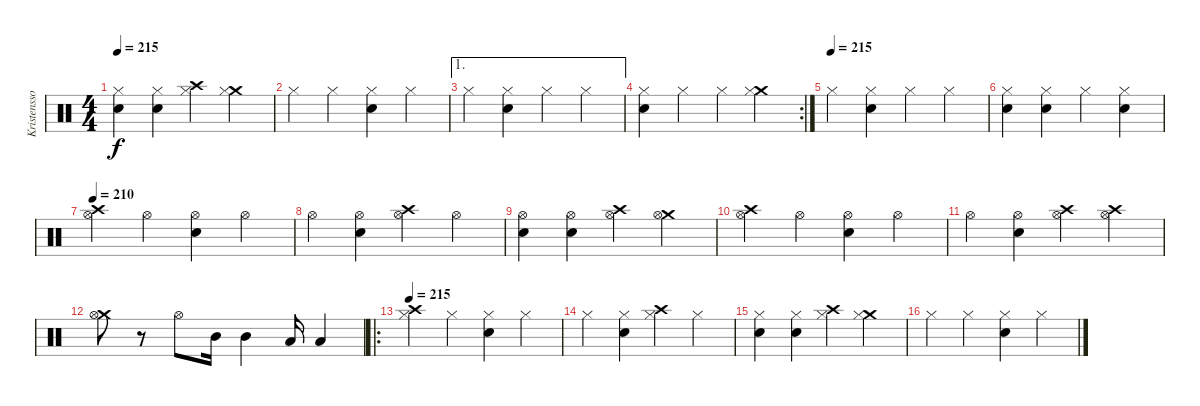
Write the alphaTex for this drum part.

\track ("Kristensson" "Kristensso") {instrument percussion}
\staff {score}
\articulation defaults
\ts (4 4)
\tempo 215
\clef neutral
\ks c
("Snare (hit) 2" "Hi-Hat (closed)").4{dy f} ("Snare (hit) 2" "Hi-Hat (closed)").4 ("Crash high (hit)" "Hi-Hat (closed)").4 ("Crash medium (hit)" "Hi-Hat (closed)").4 |
"Hi-Hat (closed)".4 "Hi-Hat (closed)".4 ("Snare (hit) 2" "Hi-Hat (closed)").4 "Hi-Hat (closed)".4 |
\ae 1 "Hi-Hat (closed)".4
("Snare (hit) 2" "Hi-Hat (closed)").4 "Hi-Hat (closed)".4 "Hi-Hat (closed)".4 |
\rc 2
("Snare (hit) 2" "Hi-Hat (closed)").4 "Hi-Hat (closed)".4 "Hi-Hat (closed)".4 ("Crash medium (hit)" "Hi-Hat (closed)").4 |
\tempo (215)
"Hi-Hat (closed)".4 ("Snare (hit) 2" "Hi-Hat (closed)").4 "Hi-Hat (closed)".4 "Hi-Hat (closed)".4 |
("Snare (hit) 2" "Hi-Hat (closed)").4 ("Snare (hit) 2" "Hi-Hat (closed)").4 "Hi-Hat (closed)".4 ("Snare (hit) 2" "Hi-Hat (closed)").4 |
\tempo 210
("Crash high (hit)" "Hi-Hat (open)").4 "Hi-Hat (open)".4 ("Snare (hit) 2" "Hi-Hat (open)").4 "Hi-Hat (open)".4 |
"Hi-Hat (open)".4 ("Snare (hit) 2" "Hi-Hat (open)").4 ("Crash high (hit)" "Hi-Hat (open)").4 "Hi-Hat (open)".4 |
("Snare (hit) 2" "Hi-Hat (open)").4 ("Snare (hit) 2" "Hi-Hat (open)").4 ("Crash high (hit)" "Hi-Hat (open)").4 ("Crash medium (hit)" "Hi-Hat (open)").4 |
("Crash high (hit)" "Hi-Hat (open)").4 "Hi-Hat (open)".4 ("Snare (hit) 2" "Hi-Hat (open)").4 "Hi-Hat (open)".4 |
"Hi-Hat (open)".4 ("Snare (hit) 2" "Hi-Hat (open)").4 ("Crash high (hit)" "Hi-Hat (open)").4 ("Crash high (hit)" "Hi-Hat (open)").4 |
("Crash medium (hit)" "Hi-Hat (open)").8 r.8 "Hi-Hat (open)".8 "Mid Tom (hit)".16 "Mid Tom (hit)".4 "Low Tom (hit)".16 "Low Tom (hit)".4 |
\ro
\tempo 215
("Crash high (hit)" "Hi-Hat (closed)").4 "Hi-Hat (closed)".4 ("Snare (hit) 2" "Hi-Hat (closed)").4 "Hi-Hat (closed)".4 |
"Hi-Hat (closed)".4 ("Snare (hit) 2" "Hi-Hat (closed)").4 ("Crash high (hit)" "Hi-Hat (closed)").4 "Hi-Hat (closed)".4 |
("Snare (hit) 2" "Hi-Hat (closed)").4 ("Snare (hit) 2" "Hi-Hat (closed)").4 ("Crash high (hit)" "Hi-Hat (closed)").4 ("Crash medium (hit)" "Hi-Hat (closed)").4 |
"Hi-Hat (closed)".4 "Hi-Hat (closed)".4 ("Snare (hit) 2" "Hi-Hat (closed)").4 "Hi-Hat (closed)".4
